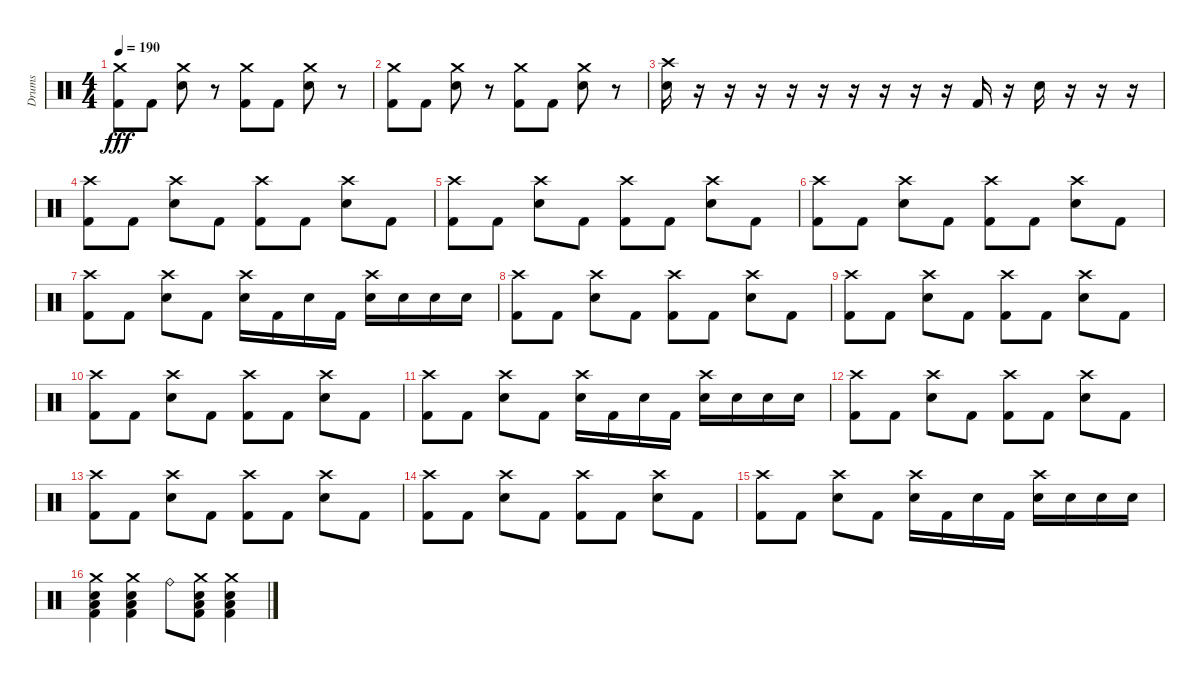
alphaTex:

\track ("Drums" "Drums") {instrument percussion}
\staff {score}
\articulation defaults
\ts (4 4)
\tempo 190
\clef neutral
\ks c
("Crash medium (hit)" "Kick (hit) 2").8{dy fff} "Kick (hit) 2".8 ("Crash medium (hit)" "Snare (hit) 2").8 r.8 ("Crash medium (hit)" "Kick (hit) 2").8 "Kick (hit) 2".8 ("Crash medium (hit)" "Snare (hit) 2").8 r.8 |
("Crash medium (hit)" "Kick (hit) 2").8 "Kick (hit) 2".8 ("Crash medium (hit)" "Snare (hit) 2").8 r.8 ("Crash medium (hit)" "Kick (hit) 2").8 "Kick (hit) 2".8 ("Crash medium (hit)" "Snare (hit) 2").8 r.8 |
("Crash high (hit)" "Snare (hit) 2").16 r.16 r.16 r.16 r.16 r.16 r.16 r.16 r.16 r.16 "Kick (hit) 2".16 r.16 "Snare (hit) 2".16 r.16 r.16 r.16 |
("Crash high (hit)" "Kick (hit) 2").8 "Kick (hit) 2".8 ("Crash high (hit)" "Snare (hit) 2").8 "Kick (hit) 2".8 ("Crash high (hit)" "Kick (hit) 2").8 "Kick (hit) 2".8 ("Crash high (hit)" "Snare (hit) 2").8 "Kick (hit) 2".8 |
("Crash high (hit)" "Kick (hit) 2").8 "Kick (hit) 2".8 ("Crash high (hit)" "Snare (hit) 2").8 "Kick (hit) 2".8 ("Crash high (hit)" "Kick (hit) 2").8 "Kick (hit) 2".8 ("Crash high (hit)" "Snare (hit) 2").8 "Kick (hit) 2".8 |
("Crash high (hit)" "Kick (hit) 2").8 "Kick (hit) 2".8 ("Crash high (hit)" "Snare (hit) 2").8 "Kick (hit) 2".8 ("Crash high (hit)" "Kick (hit) 2").8 "Kick (hit) 2".8 ("Crash high (hit)" "Snare (hit) 2").8 "Kick (hit) 2".8 |
("Crash high (hit)" "Kick (hit) 2").8 "Kick (hit) 2".8 ("Crash high (hit)" "Snare (hit) 2").8 "Kick (hit) 2".8 ("Crash high (hit)" "Electric Snare (hit)").16 "Kick (hit) 2".16 "Electric Snare (hit)".16 "Kick (hit) 2".16 ("Crash high (hit)" "Electric Snare (hit)").16 "Electric Snare (hit)".16 "Electric Snare (hit)".16 "Electric Snare (hit)".16 |
("Crash high (hit)" "Kick (hit) 2").8 "Kick (hit) 2".8 ("Crash high (hit)" "Snare (hit) 2").8 "Kick (hit) 2".8 ("Crash high (hit)" "Kick (hit) 2").8 "Kick (hit) 2".8 ("Crash high (hit)" "Snare (hit) 2").8 "Kick (hit) 2".8 |
("Crash high (hit)" "Kick (hit) 2").8 "Kick (hit) 2".8 ("Crash high (hit)" "Snare (hit) 2").8 "Kick (hit) 2".8 ("Crash high (hit)" "Kick (hit) 2").8 "Kick (hit) 2".8 ("Crash high (hit)" "Snare (hit) 2").8 "Kick (hit) 2".8 |
("Crash high (hit)" "Kick (hit) 2").8 "Kick (hit) 2".8 ("Crash high (hit)" "Snare (hit) 2").8 "Kick (hit) 2".8 ("Crash high (hit)" "Kick (hit) 2").8 "Kick (hit) 2".8 ("Crash high (hit)" "Snare (hit) 2").8 "Kick (hit) 2".8 |
("Crash high (hit)" "Kick (hit) 2").8 "Kick (hit) 2".8 ("Crash high (hit)" "Snare (hit) 2").8 "Kick (hit) 2".8 ("Crash high (hit)" "Electric Snare (hit)").16 "Kick (hit) 2".16 "Electric Snare (hit)".16 "Kick (hit) 2".16 ("Crash high (hit)" "Electric Snare (hit)").16 "Electric Snare (hit)".16 "Electric Snare (hit)".16 "Electric Snare (hit)".16 |
("Crash high (hit)" "Kick (hit) 2").8 "Kick (hit) 2".8 ("Crash high (hit)" "Snare (hit) 2").8 "Kick (hit) 2".8 ("Crash high (hit)" "Kick (hit) 2").8 "Kick (hit) 2".8 ("Crash high (hit)" "Snare (hit) 2").8 "Kick (hit) 2".8 |
("Crash high (hit)" "Kick (hit) 2").8 "Kick (hit) 2".8 ("Crash high (hit)" "Snare (hit) 2").8 "Kick (hit) 2".8 ("Crash high (hit)" "Kick (hit) 2").8 "Kick (hit) 2".8 ("Crash high (hit)" "Snare (hit) 2").8 "Kick (hit) 2".8 |
("Crash high (hit)" "Kick (hit) 2").8 "Kick (hit) 2".8 ("Crash high (hit)" "Snare (hit) 2").8 "Kick (hit) 2".8 ("Crash high (hit)" "Kick (hit) 2").8 "Kick (hit) 2".8 ("Crash high (hit)" "Snare (hit) 2").8 "Kick (hit) 2".8 |
("Crash high (hit)" "Kick (hit) 2").8 "Kick (hit) 2".8 ("Crash high (hit)" "Snare (hit) 2").8 "Kick (hit) 2".8 ("Crash high (hit)" "Electric Snare (hit)").16 "Kick (hit) 2".16 "Electric Snare (hit)".16 "Kick (hit) 2".16 ("Crash high (hit)" "Electric Snare (hit)").16 "Electric Snare (hit)".16 "Electric Snare (hit)".16 "Electric Snare (hit)".16 |
("Crash medium (hit)" "Low Floor Tom (hit)" "Snare (hit) 2" "Kick (hit) 2").4 ("Crash medium (hit)" "Low Floor Tom (hit)" "Snare (hit) 2" "Kick (hit) 2").4 "Ride (bell)".8 ("Crash medium (hit)" "Low Floor Tom (hit)" "Snare (hit) 2" "Kick (hit) 2").8 ("Crash medium (hit)" "Low Floor Tom (hit)" "Snare (hit) 2" "Kick (hit) 2").4
